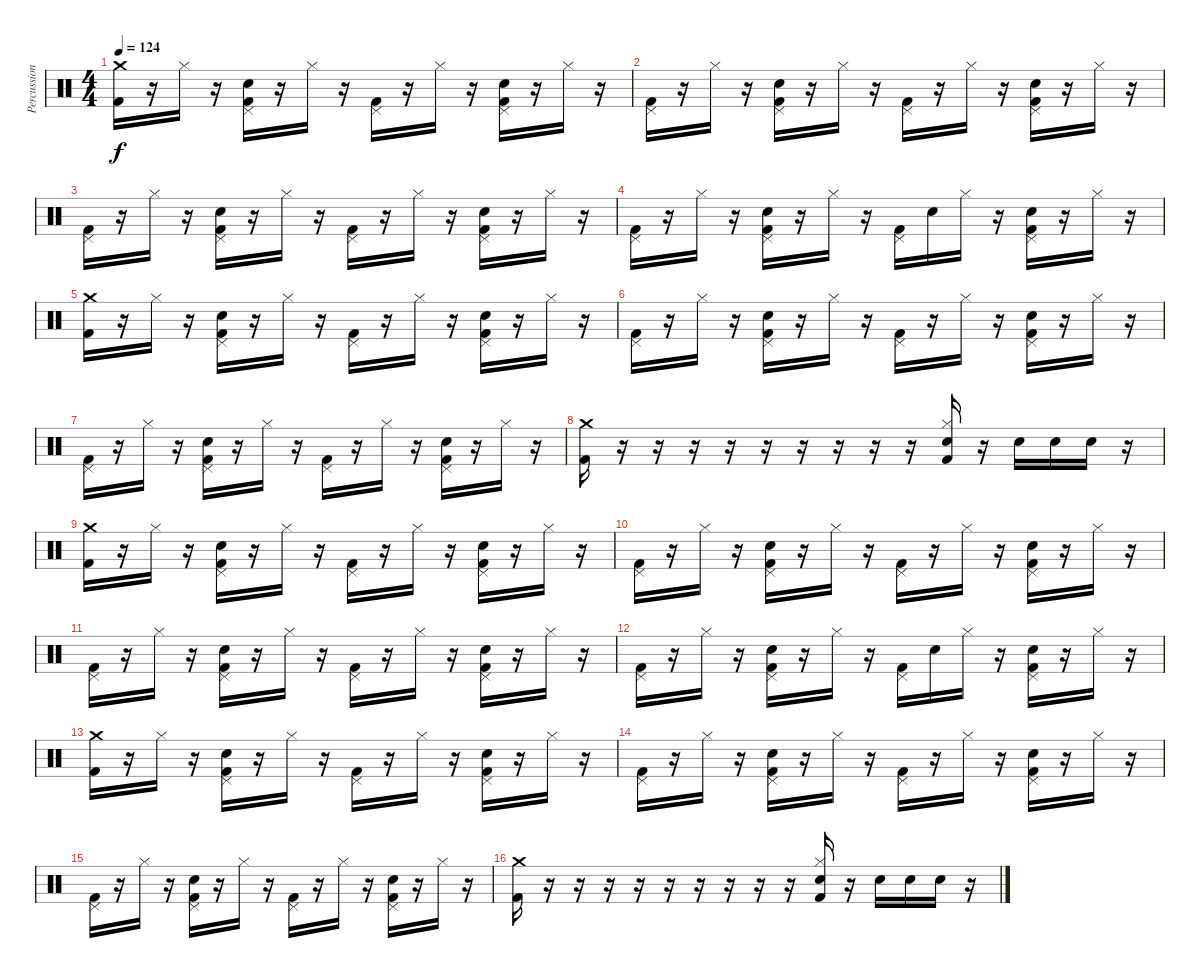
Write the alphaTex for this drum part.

\track ("Percussion" "Percussion") {instrument percussion}
\staff {score}
\articulation defaults
\ts (4 4)
\tempo 124
\clef neutral
\ks c
("Crash medium (hit)" "Kick (hit) 2").16{dy f} r.16 "Hi-Hat (closed)".16 r.16 ("Pedal Hi-Hat (hit)" "Electric Snare (hit)" "Kick (hit) 2").16 r.16 "Hi-Hat (closed)".16 r.16 ("Pedal Hi-Hat (hit)" "Kick (hit) 2").16 r.16 "Hi-Hat (closed)".16 r.16 ("Pedal Hi-Hat (hit)" "Electric Snare (hit)" "Kick (hit) 2").16 r.16 "Hi-Hat (closed)".16 r.16 |
("Pedal Hi-Hat (hit)" "Kick (hit) 2").16 r.16 "Hi-Hat (closed)".16 r.16 ("Pedal Hi-Hat (hit)" "Electric Snare (hit)" "Kick (hit) 2").16 r.16 "Hi-Hat (closed)".16 r.16 ("Pedal Hi-Hat (hit)" "Kick (hit) 2").16 r.16 "Hi-Hat (closed)".16 r.16 ("Pedal Hi-Hat (hit)" "Electric Snare (hit)" "Kick (hit) 2").16 r.16 "Hi-Hat (closed)".16 r.16 |
("Pedal Hi-Hat (hit)" "Kick (hit) 2").16 r.16 "Hi-Hat (closed)".16 r.16 ("Pedal Hi-Hat (hit)" "Electric Snare (hit)" "Kick (hit) 2").16 r.16 "Hi-Hat (closed)".16 r.16 ("Pedal Hi-Hat (hit)" "Kick (hit) 2").16 r.16 "Hi-Hat (closed)".16 r.16 ("Pedal Hi-Hat (hit)" "Electric Snare (hit)" "Kick (hit) 2").16 r.16 "Hi-Hat (closed)".16 r.16 |
("Pedal Hi-Hat (hit)" "Kick (hit) 2").16 r.16 "Hi-Hat (closed)".16 r.16 ("Pedal Hi-Hat (hit)" "Electric Snare (hit)" "Kick (hit) 2").16 r.16 "Hi-Hat (closed)".16 r.16 ("Pedal Hi-Hat (hit)" "Kick (hit) 2").16 "Electric Snare (hit)".16 "Hi-Hat (closed)".16 r.16 ("Pedal Hi-Hat (hit)" "Electric Snare (hit)" "Kick (hit) 2").16 r.16 "Hi-Hat (closed)".16 r.16 |
("Crash medium (hit)" "Kick (hit) 2").16 r.16 "Hi-Hat (closed)".16 r.16 ("Pedal Hi-Hat (hit)" "Electric Snare (hit)" "Kick (hit) 2").16 r.16 "Hi-Hat (closed)".16 r.16 ("Pedal Hi-Hat (hit)" "Kick (hit) 2").16 r.16 "Hi-Hat (closed)".16 r.16 ("Pedal Hi-Hat (hit)" "Electric Snare (hit)" "Kick (hit) 2").16 r.16 "Hi-Hat (closed)".16 r.16 |
("Pedal Hi-Hat (hit)" "Kick (hit) 2").16 r.16 "Hi-Hat (closed)".16 r.16 ("Pedal Hi-Hat (hit)" "Electric Snare (hit)" "Kick (hit) 2").16 r.16 "Hi-Hat (closed)".16 r.16 ("Pedal Hi-Hat (hit)" "Kick (hit) 2").16 r.16 "Hi-Hat (closed)".16 r.16 ("Pedal Hi-Hat (hit)" "Electric Snare (hit)" "Kick (hit) 2").16 r.16 "Hi-Hat (closed)".16 r.16 |
("Pedal Hi-Hat (hit)" "Kick (hit) 2").16 r.16 "Hi-Hat (closed)".16 r.16 ("Pedal Hi-Hat (hit)" "Electric Snare (hit)" "Kick (hit) 2").16 r.16 "Hi-Hat (closed)".16 r.16 ("Pedal Hi-Hat (hit)" "Kick (hit) 2").16 r.16 "Hi-Hat (closed)".16 r.16 ("Pedal Hi-Hat (hit)" "Electric Snare (hit)" "Kick (hit) 2").16 r.16 "Hi-Hat (closed)".16 r.16 |
("Crash medium (hit)" "Kick (hit) 2").16 r.16 r.16 r.16 r.16 r.16 r.16 r.16 r.16 r.16 ("Hi-Hat (closed)" "Electric Snare (hit)" "Kick (hit) 2").16 r.16 "Electric Snare (hit)".16 "Electric Snare (hit)".16 "Electric Snare (hit)".16 r.16 |
("Crash medium (hit)" "Kick (hit) 2").16 r.16 "Hi-Hat (closed)".16 r.16 ("Pedal Hi-Hat (hit)" "Electric Snare (hit)" "Kick (hit) 2").16 r.16 "Hi-Hat (closed)".16 r.16 ("Pedal Hi-Hat (hit)" "Kick (hit) 2").16 r.16 "Hi-Hat (closed)".16 r.16 ("Pedal Hi-Hat (hit)" "Electric Snare (hit)" "Kick (hit) 2").16 r.16 "Hi-Hat (closed)".16 r.16 |
("Pedal Hi-Hat (hit)" "Kick (hit) 2").16 r.16 "Hi-Hat (closed)".16 r.16 ("Pedal Hi-Hat (hit)" "Electric Snare (hit)" "Kick (hit) 2").16 r.16 "Hi-Hat (closed)".16 r.16 ("Pedal Hi-Hat (hit)" "Kick (hit) 2").16 r.16 "Hi-Hat (closed)".16 r.16 ("Pedal Hi-Hat (hit)" "Electric Snare (hit)" "Kick (hit) 2").16 r.16 "Hi-Hat (closed)".16 r.16 |
("Pedal Hi-Hat (hit)" "Kick (hit) 2").16 r.16 "Hi-Hat (closed)".16 r.16 ("Pedal Hi-Hat (hit)" "Electric Snare (hit)" "Kick (hit) 2").16 r.16 "Hi-Hat (closed)".16 r.16 ("Pedal Hi-Hat (hit)" "Kick (hit) 2").16 r.16 "Hi-Hat (closed)".16 r.16 ("Pedal Hi-Hat (hit)" "Electric Snare (hit)" "Kick (hit) 2").16 r.16 "Hi-Hat (closed)".16 r.16 |
("Pedal Hi-Hat (hit)" "Kick (hit) 2").16 r.16 "Hi-Hat (closed)".16 r.16 ("Pedal Hi-Hat (hit)" "Electric Snare (hit)" "Kick (hit) 2").16 r.16 "Hi-Hat (closed)".16 r.16 ("Pedal Hi-Hat (hit)" "Kick (hit) 2").16 "Electric Snare (hit)".16 "Hi-Hat (closed)".16 r.16 ("Pedal Hi-Hat (hit)" "Electric Snare (hit)" "Kick (hit) 2").16 r.16 "Hi-Hat (closed)".16 r.16 |
("Crash medium (hit)" "Kick (hit) 2").16 r.16 "Hi-Hat (closed)".16 r.16 ("Pedal Hi-Hat (hit)" "Electric Snare (hit)" "Kick (hit) 2").16 r.16 "Hi-Hat (closed)".16 r.16 ("Pedal Hi-Hat (hit)" "Kick (hit) 2").16 r.16 "Hi-Hat (closed)".16 r.16 ("Pedal Hi-Hat (hit)" "Electric Snare (hit)" "Kick (hit) 2").16 r.16 "Hi-Hat (closed)".16 r.16 |
("Pedal Hi-Hat (hit)" "Kick (hit) 2").16 r.16 "Hi-Hat (closed)".16 r.16 ("Pedal Hi-Hat (hit)" "Electric Snare (hit)" "Kick (hit) 2").16 r.16 "Hi-Hat (closed)".16 r.16 ("Pedal Hi-Hat (hit)" "Kick (hit) 2").16 r.16 "Hi-Hat (closed)".16 r.16 ("Pedal Hi-Hat (hit)" "Electric Snare (hit)" "Kick (hit) 2").16 r.16 "Hi-Hat (closed)".16 r.16 |
("Pedal Hi-Hat (hit)" "Kick (hit) 2").16 r.16 "Hi-Hat (closed)".16 r.16 ("Pedal Hi-Hat (hit)" "Electric Snare (hit)" "Kick (hit) 2").16 r.16 "Hi-Hat (closed)".16 r.16 ("Pedal Hi-Hat (hit)" "Kick (hit) 2").16 r.16 "Hi-Hat (closed)".16 r.16 ("Pedal Hi-Hat (hit)" "Electric Snare (hit)" "Kick (hit) 2").16 r.16 "Hi-Hat (closed)".16 r.16 |
("Crash medium (hit)" "Kick (hit) 2").16 r.16 r.16 r.16 r.16 r.16 r.16 r.16 r.16 r.16 ("Hi-Hat (closed)" "Electric Snare (hit)" "Kick (hit) 2").16 r.16 "Electric Snare (hit)".16 "Electric Snare (hit)".16 "Electric Snare (hit)".16 r.16
